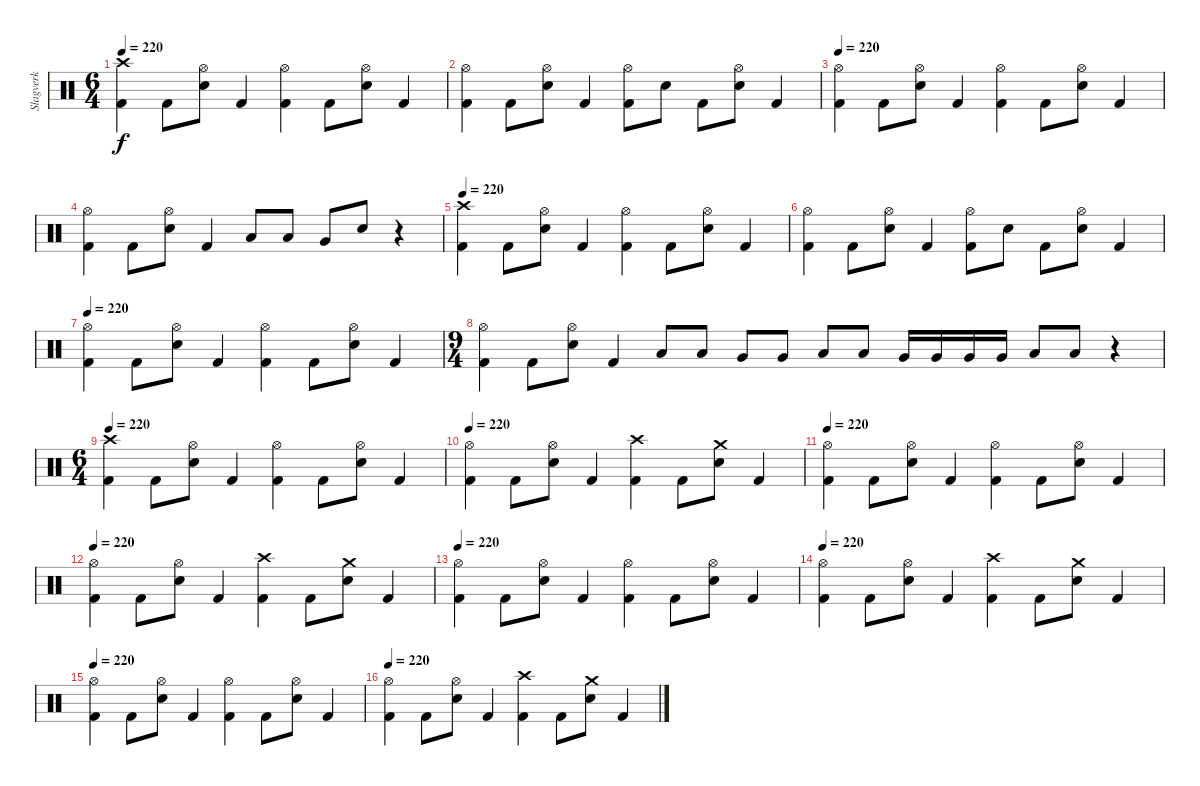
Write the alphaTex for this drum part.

\track ("Slagverk" "Slagverk") {instrument percussion}
\staff {score}
\articulation defaults
\ts (6 4)
\tempo 220
\clef neutral
\ks c
("Crash high (hit)" "Kick (hit) 2").4{dy f} "Kick (hit) 2".8 ("Hi-Hat (open)" "Electric Snare (hit)").8 "Kick (hit) 2".4 ("Hi-Hat (open)" "Kick (hit) 2").4 "Kick (hit) 2".8 ("Hi-Hat (open)" "Electric Snare (hit)").8 "Kick (hit) 2".4 |
("Hi-Hat (open)" "Kick (hit) 2").4 "Kick (hit) 2".8 ("Hi-Hat (open)" "Electric Snare (hit)").8 "Kick (hit) 2".4 ("Hi-Hat (open)" "Kick (hit) 2").8 "Electric Snare (hit)".8 "Kick (hit) 2".8 ("Hi-Hat (open)" "Electric Snare (hit)").8 "Kick (hit) 2".4 |
\tempo 220
("Hi-Hat (open)" "Kick (hit) 2").4 "Kick (hit) 2".8 ("Hi-Hat (open)" "Electric Snare (hit)").8 "Kick (hit) 2".4 ("Hi-Hat (open)" "Kick (hit) 2").4 "Kick (hit) 2".8 ("Hi-Hat (open)" "Electric Snare (hit)").8 "Kick (hit) 2".4 |
("Hi-Hat (open)" "Kick (hit) 2").4 "Kick (hit) 2".8 ("Hi-Hat (open)" "Electric Snare (hit)").8 "Kick (hit) 2".4 "Low Tom (hit)".8 "Low Tom (hit)".8 "Very Low Tom (hit)".8 "Electric Snare (hit)".8 r.4 |
\tempo 220
("Crash high (hit)" "Kick (hit) 2").4 "Kick (hit) 2".8 ("Hi-Hat (open)" "Electric Snare (hit)").8 "Kick (hit) 2".4 ("Hi-Hat (open)" "Kick (hit) 2").4 "Kick (hit) 2".8 ("Hi-Hat (open)" "Electric Snare (hit)").8 "Kick (hit) 2".4 |
("Hi-Hat (open)" "Kick (hit) 2").4 "Kick (hit) 2".8 ("Hi-Hat (open)" "Electric Snare (hit)").8 "Kick (hit) 2".4 ("Hi-Hat (open)" "Kick (hit) 2").8 "Electric Snare (hit)".8 "Kick (hit) 2".8 ("Hi-Hat (open)" "Electric Snare (hit)").8 "Kick (hit) 2".4 |
\tempo 220
("Hi-Hat (open)" "Kick (hit) 2").4 "Kick (hit) 2".8 ("Hi-Hat (open)" "Electric Snare (hit)").8 "Kick (hit) 2".4 ("Hi-Hat (open)" "Kick (hit) 2").4 "Kick (hit) 2".8 ("Hi-Hat (open)" "Electric Snare (hit)").8 "Kick (hit) 2".4 |
\ts (9 4)
("Hi-Hat (open)" "Kick (hit) 2").4 "Kick (hit) 2".8 ("Hi-Hat (open)" "Electric Snare (hit)").8 "Kick (hit) 2".4 "Low Tom (hit)".8 "Low Tom (hit)".8 "Very Low Tom (hit)".8 "Very Low Tom (hit)".8 "Low Floor Tom (hit)".8 "Low Floor Tom (hit)".8 "Very Low Tom (hit)".16 "Very Low Tom (hit)".16 "Very Low Tom (hit)".16 "Very Low Tom (hit)".16 "Low Floor Tom (hit)".8 "Low Floor Tom (hit)".8 r.4 |
\ts (6 4)
\tempo 220
("Crash high (hit)" "Kick (hit) 2").4 "Kick (hit) 2".8 ("Hi-Hat (open)" "Electric Snare (hit)").8 "Kick (hit) 2".4 ("Hi-Hat (open)" "Kick (hit) 2").4 "Kick (hit) 2".8 ("Hi-Hat (open)" "Electric Snare (hit)").8 "Kick (hit) 2".4 |
\tempo 220
("Hi-Hat (open)" "Kick (hit) 2").4 "Kick (hit) 2".8 ("Hi-Hat (open)" "Electric Snare (hit)").8 "Kick (hit) 2".4 ("Crash high (hit)" "Kick (hit) 2").4 "Kick (hit) 2".8 ("Crash medium (hit)" "Electric Snare (hit)").8 "Kick (hit) 2".4 |
\tempo 220
("Hi-Hat (open)" "Kick (hit) 2").4 "Kick (hit) 2".8 ("Hi-Hat (open)" "Electric Snare (hit)").8 "Kick (hit) 2".4 ("Hi-Hat (open)" "Kick (hit) 2").4 "Kick (hit) 2".8 ("Hi-Hat (open)" "Electric Snare (hit)").8 "Kick (hit) 2".4 |
\tempo 220
("Hi-Hat (open)" "Kick (hit) 2").4 "Kick (hit) 2".8 ("Hi-Hat (open)" "Electric Snare (hit)").8 "Kick (hit) 2".4 ("Crash high (hit)" "Kick (hit) 2").4 "Kick (hit) 2".8 ("Crash medium (hit)" "Electric Snare (hit)").8 "Kick (hit) 2".4 |
\tempo 220
("Hi-Hat (open)" "Kick (hit) 2").4 "Kick (hit) 2".8 ("Hi-Hat (open)" "Electric Snare (hit)").8 "Kick (hit) 2".4 ("Hi-Hat (open)" "Kick (hit) 2").4 "Kick (hit) 2".8 ("Hi-Hat (open)" "Electric Snare (hit)").8 "Kick (hit) 2".4 |
\tempo 220
("Hi-Hat (open)" "Kick (hit) 2").4 "Kick (hit) 2".8 ("Hi-Hat (open)" "Electric Snare (hit)").8 "Kick (hit) 2".4 ("Crash high (hit)" "Kick (hit) 2").4 "Kick (hit) 2".8 ("Crash medium (hit)" "Electric Snare (hit)").8 "Kick (hit) 2".4 |
\tempo 220
("Hi-Hat (open)" "Kick (hit) 2").4 "Kick (hit) 2".8 ("Hi-Hat (open)" "Electric Snare (hit)").8 "Kick (hit) 2".4 ("Hi-Hat (open)" "Kick (hit) 2").4 "Kick (hit) 2".8 ("Hi-Hat (open)" "Electric Snare (hit)").8 "Kick (hit) 2".4 |
\tempo 220
("Hi-Hat (open)" "Kick (hit) 2").4 "Kick (hit) 2".8 ("Hi-Hat (open)" "Electric Snare (hit)").8 "Kick (hit) 2".4 ("Crash high (hit)" "Kick (hit) 2").4 "Kick (hit) 2".8 ("Crash medium (hit)" "Electric Snare (hit)").8 "Kick (hit) 2".4
